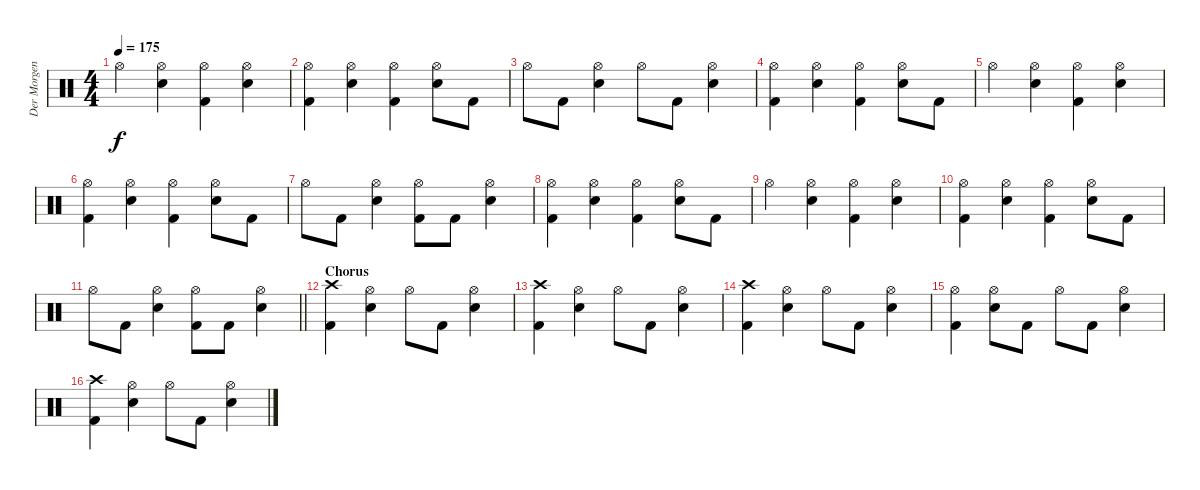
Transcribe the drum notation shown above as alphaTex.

\track ("Der Morgenstern" "Der Morgen") {instrument percussion}
\staff {score}
\articulation defaults
\ts (4 4)
\tempo 175
\clef neutral
\ks c "Hi-Hat (open)".4{dy f}
("Hi-Hat (open)" "Electric Snare (hit)").4 ("Hi-Hat (open)" "Kick (hit) 2").4 ("Hi-Hat (open)" "Electric Snare (hit)").4 |
("Hi-Hat (open)" "Kick (hit) 2").4 ("Hi-Hat (open)" "Electric Snare (hit)").4 ("Hi-Hat (open)" "Kick (hit) 2").4 ("Hi-Hat (open)" "Electric Snare (hit)").8 "Kick (hit) 2".8 |
"Hi-Hat (open)".8 "Kick (hit) 2".8 ("Hi-Hat (open)" "Electric Snare (hit)").4 "Hi-Hat (open)".8 "Kick (hit) 2".8 ("Hi-Hat (open)" "Electric Snare (hit)").4 |
("Hi-Hat (open)" "Kick (hit) 2").4 ("Hi-Hat (open)" "Electric Snare (hit)").4 ("Hi-Hat (open)" "Kick (hit) 2").4 ("Hi-Hat (open)" "Electric Snare (hit)").8 "Kick (hit) 2".8 |
"Hi-Hat (open)".4 ("Hi-Hat (open)" "Electric Snare (hit)").4 ("Hi-Hat (open)" "Kick (hit) 2").4 ("Hi-Hat (open)" "Electric Snare (hit)").4 |
("Hi-Hat (open)" "Kick (hit) 2").4 ("Hi-Hat (open)" "Electric Snare (hit)").4 ("Hi-Hat (open)" "Kick (hit) 2").4 ("Hi-Hat (open)" "Electric Snare (hit)").8 "Kick (hit) 2".8 |
"Hi-Hat (open)".8 "Kick (hit) 2".8 ("Hi-Hat (open)" "Electric Snare (hit)").4 ("Hi-Hat (open)" "Kick (hit) 2").8 "Kick (hit) 2".8 ("Hi-Hat (open)" "Electric Snare (hit)").4 |
("Hi-Hat (open)" "Kick (hit) 2").4 ("Hi-Hat (open)" "Electric Snare (hit)").4 ("Hi-Hat (open)" "Kick (hit) 2").4 ("Hi-Hat (open)" "Electric Snare (hit)").8 "Kick (hit) 2".8 |
"Hi-Hat (open)".4 ("Hi-Hat (open)" "Electric Snare (hit)").4 ("Hi-Hat (open)" "Kick (hit) 2").4 ("Hi-Hat (open)" "Electric Snare (hit)").4 |
("Hi-Hat (open)" "Kick (hit) 2").4 ("Hi-Hat (open)" "Electric Snare (hit)").4 ("Hi-Hat (open)" "Kick (hit) 2").4 ("Hi-Hat (open)" "Electric Snare (hit)").8 "Kick (hit) 2".8 |
\barLineRight lightlight "Hi-Hat (open)".8 "Kick (hit) 2".8
("Hi-Hat (open)" "Electric Snare (hit)").4 ("Hi-Hat (open)" "Kick (hit) 2").8 "Kick (hit) 2".8 ("Hi-Hat (open)" "Electric Snare (hit)").4 |
\section ("" "Chorus")
("Crash high (hit)" "Kick (hit) 2").4 ("Hi-Hat (open)" "Electric Snare (hit)").4 "Hi-Hat (open)".8 "Kick (hit) 2".8 ("Hi-Hat (open)" "Electric Snare (hit)").4 |
("Crash high (hit)" "Kick (hit) 2").4 ("Hi-Hat (open)" "Electric Snare (hit)").4 "Hi-Hat (open)".8 "Kick (hit) 2".8 ("Hi-Hat (open)" "Electric Snare (hit)").4 |
("Crash high (hit)" "Kick (hit) 2").4 ("Hi-Hat (open)" "Electric Snare (hit)").4 "Hi-Hat (open)".8 "Kick (hit) 2".8 ("Hi-Hat (open)" "Electric Snare (hit)").4 |
("Hi-Hat (open)" "Kick (hit) 2").4 ("Hi-Hat (open)" "Electric Snare (hit)").8 "Kick (hit) 2".8 "Hi-Hat (open)".8 "Kick (hit) 2".8 ("Hi-Hat (open)" "Electric Snare (hit)").4 |
("Crash high (hit)" "Kick (hit) 2").4 ("Hi-Hat (open)" "Electric Snare (hit)").4 "Hi-Hat (open)".8 "Kick (hit) 2".8 ("Hi-Hat (open)" "Electric Snare (hit)").4
